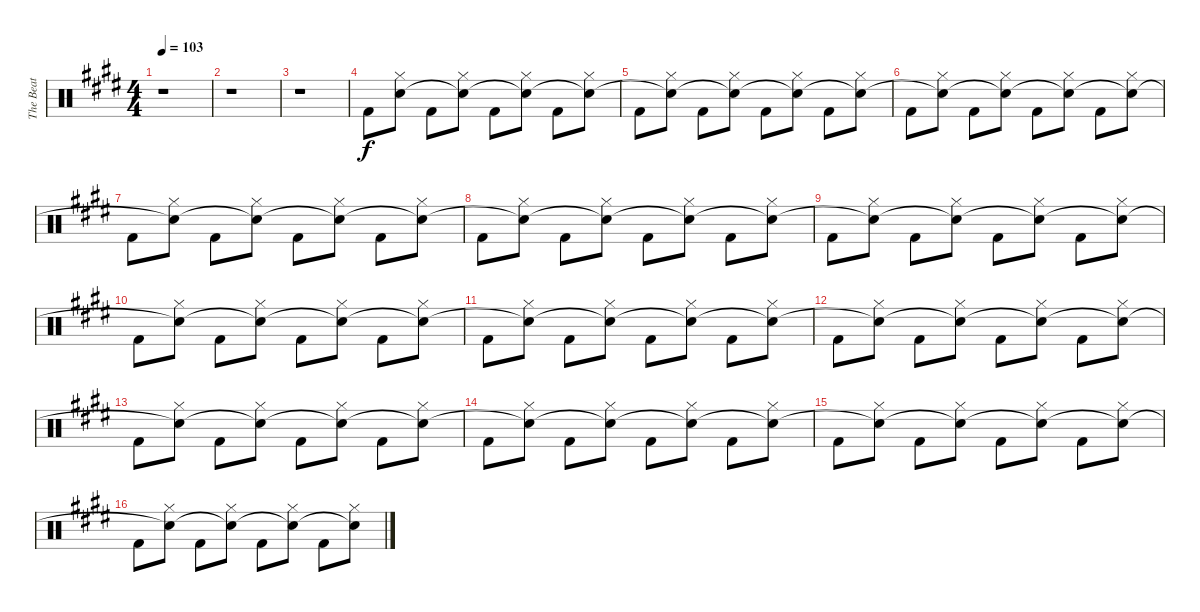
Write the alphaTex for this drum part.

\track ("The Beat" "The Beat") {instrument percussion}
\staff {score}
\articulation defaults
\ts (4 4)
\tempo 103
\clef neutral
\ks e
r.1{dy f} |
r.1 |
r.1 |
"Kick (hit) 2".8 ("Hi-Hat (closed)" "Snare (hit)").8 "Kick (hit) 2".8 ("Hi-Hat (closed)" "Snare (hit)"{t}).8 "Kick (hit) 2".8 ("Hi-Hat (closed)" "Snare (hit)"{t}).8 "Kick (hit) 2".8 ("Hi-Hat (closed)" "Snare (hit)"{t}).8 |
"Kick (hit) 2".8 ("Hi-Hat (closed)" "Snare (hit)"{t}).8 "Kick (hit) 2".8 ("Hi-Hat (closed)" "Snare (hit)"{t}).8 "Kick (hit) 2".8 ("Hi-Hat (closed)" "Snare (hit)"{t}).8 "Kick (hit) 2".8 ("Hi-Hat (closed)" "Snare (hit)"{t}).8 |
"Kick (hit) 2".8 ("Hi-Hat (closed)" "Snare (hit)"{t}).8 "Kick (hit) 2".8 ("Hi-Hat (closed)" "Snare (hit)"{t}).8 "Kick (hit) 2".8 ("Hi-Hat (closed)" "Snare (hit)"{t}).8 "Kick (hit) 2".8 ("Hi-Hat (closed)" "Snare (hit)"{t}).8 |
"Kick (hit) 2".8 ("Hi-Hat (closed)" "Snare (hit)"{t}).8 "Kick (hit) 2".8 ("Hi-Hat (closed)" "Snare (hit)"{t}).8 "Kick (hit) 2".8 ("Hi-Hat (closed)" "Snare (hit)"{t}).8 "Kick (hit) 2".8 ("Hi-Hat (closed)" "Snare (hit)"{t}).8 |
"Kick (hit) 2".8 ("Hi-Hat (closed)" "Snare (hit)"{t}).8 "Kick (hit) 2".8 ("Hi-Hat (closed)" "Snare (hit)"{t}).8 "Kick (hit) 2".8 ("Hi-Hat (closed)" "Snare (hit)"{t}).8 "Kick (hit) 2".8 ("Hi-Hat (closed)" "Snare (hit)"{t}).8 |
"Kick (hit) 2".8 ("Hi-Hat (closed)" "Snare (hit)"{t}).8 "Kick (hit) 2".8 ("Hi-Hat (closed)" "Snare (hit)"{t}).8 "Kick (hit) 2".8 ("Hi-Hat (closed)" "Snare (hit)"{t}).8 "Kick (hit) 2".8 ("Hi-Hat (closed)" "Snare (hit)"{t}).8 |
"Kick (hit) 2".8 ("Hi-Hat (closed)" "Snare (hit)"{t}).8 "Kick (hit) 2".8 ("Hi-Hat (closed)" "Snare (hit)"{t}).8 "Kick (hit) 2".8 ("Hi-Hat (closed)" "Snare (hit)"{t}).8 "Kick (hit) 2".8 ("Hi-Hat (closed)" "Snare (hit)"{t}).8 |
"Kick (hit) 2".8 ("Hi-Hat (closed)" "Snare (hit)"{t}).8 "Kick (hit) 2".8 ("Hi-Hat (closed)" "Snare (hit)"{t}).8 "Kick (hit) 2".8 ("Hi-Hat (closed)" "Snare (hit)"{t}).8 "Kick (hit) 2".8 ("Hi-Hat (closed)" "Snare (hit)"{t}).8 |
"Kick (hit) 2".8 ("Hi-Hat (closed)" "Snare (hit)"{t}).8 "Kick (hit) 2".8 ("Hi-Hat (closed)" "Snare (hit)"{t}).8 "Kick (hit) 2".8 ("Hi-Hat (closed)" "Snare (hit)"{t}).8 "Kick (hit) 2".8 ("Hi-Hat (closed)" "Snare (hit)"{t}).8 |
"Kick (hit) 2".8 ("Hi-Hat (closed)" "Snare (hit)"{t}).8 "Kick (hit) 2".8 ("Hi-Hat (closed)" "Snare (hit)"{t}).8 "Kick (hit) 2".8 ("Hi-Hat (closed)" "Snare (hit)"{t}).8 "Kick (hit) 2".8 ("Hi-Hat (closed)" "Snare (hit)"{t}).8 |
"Kick (hit) 2".8 ("Hi-Hat (closed)" "Snare (hit)"{t}).8 "Kick (hit) 2".8 ("Hi-Hat (closed)" "Snare (hit)"{t}).8 "Kick (hit) 2".8 ("Hi-Hat (closed)" "Snare (hit)"{t}).8 "Kick (hit) 2".8 ("Hi-Hat (closed)" "Snare (hit)"{t}).8 |
"Kick (hit) 2".8 ("Hi-Hat (closed)" "Snare (hit)"{t}).8 "Kick (hit) 2".8 ("Hi-Hat (closed)" "Snare (hit)"{t}).8 "Kick (hit) 2".8 ("Hi-Hat (closed)" "Snare (hit)"{t}).8 "Kick (hit) 2".8 ("Hi-Hat (closed)" "Snare (hit)"{t}).8 |
"Kick (hit) 2".8 ("Hi-Hat (closed)" "Snare (hit)"{t}).8 "Kick (hit) 2".8 ("Hi-Hat (closed)" "Snare (hit)"{t}).8 "Kick (hit) 2".8 ("Hi-Hat (closed)" "Snare (hit)"{t}).8 "Kick (hit) 2".8 ("Hi-Hat (closed)" "Snare (hit)"{t}).8
